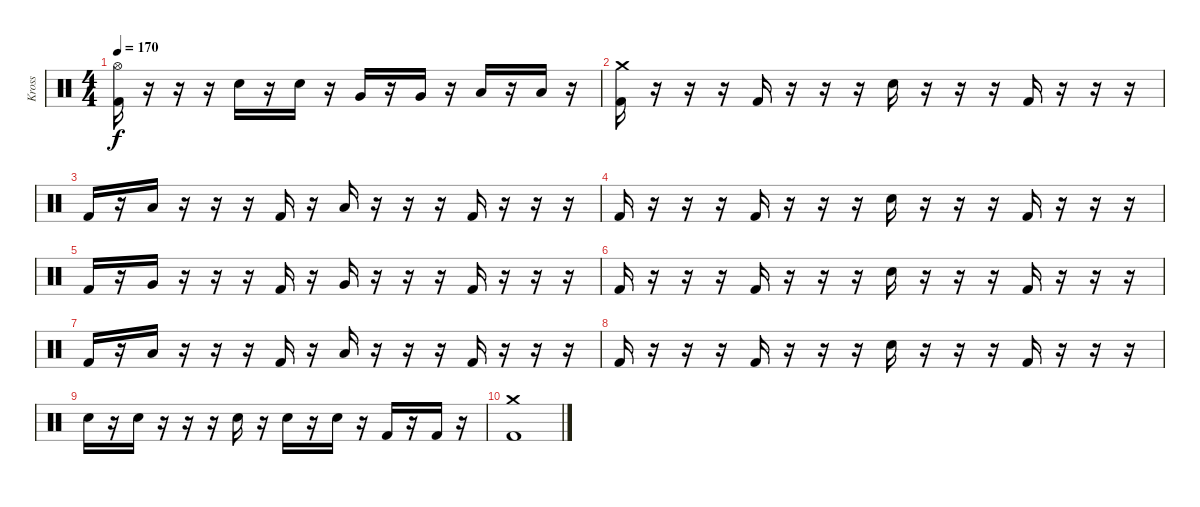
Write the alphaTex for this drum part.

\track ("Kross" "Kross") {instrument percussion}
\staff {score}
\articulation defaults
\ts (4 4)
\tempo 170
\clef neutral
\ks c
("Hi-Hat (open)" "Kick (hit) 2").16{dy f} r.16 r.16 r.16 "Electric Snare (hit)".16 r.16 "Electric Snare (hit)".16 r.16 "Very Low Tom (hit)".16 r.16 "Very Low Tom (hit)".16 r.16 "Low Floor Tom (hit)".16 r.16 "Low Floor Tom (hit)".16 r.16 |
("Crash medium (hit)" "Kick (hit) 2").16 r.16 r.16 r.16 "Kick (hit) 2".16 r.16 r.16 r.16 "Electric Snare (hit)".16 r.16 r.16 r.16 "Kick (hit) 2".16 r.16 r.16 r.16 |
"Kick (hit) 2".16 r.16 "Low Floor Tom (hit)".16 r.16 r.16 r.16 "Kick (hit) 2".16 r.16 "Low Floor Tom (hit)".16 r.16 r.16 r.16 "Kick (hit) 2".16 r.16 r.16 r.16 |
"Kick (hit) 2".16 r.16 r.16 r.16 "Kick (hit) 2".16 r.16 r.16 r.16 "Electric Snare (hit)".16 r.16 r.16 r.16 "Kick (hit) 2".16 r.16 r.16 r.16 |
"Kick (hit) 2".16 r.16 "Very Low Tom (hit)".16 r.16 r.16 r.16 "Kick (hit) 2".16 r.16 "Very Low Tom (hit)".16 r.16 r.16 r.16 "Kick (hit) 2".16 r.16 r.16 r.16 |
"Kick (hit) 2".16 r.16 r.16 r.16 "Kick (hit) 2".16 r.16 r.16 r.16 "Electric Snare (hit)".16 r.16 r.16 r.16 "Kick (hit) 2".16 r.16 r.16 r.16 |
"Kick (hit) 2".16 r.16 "Low Tom (hit)".16 r.16 r.16 r.16 "Kick (hit) 2".16 r.16 "Low Tom (hit)".16 r.16 r.16 r.16 "Kick (hit) 2".16 r.16 r.16 r.16 |
"Kick (hit) 2".16 r.16 r.16 r.16 "Kick (hit) 2".16 r.16 r.16 r.16 "Electric Snare (hit)".16 r.16 r.16 r.16 "Kick (hit) 2".16 r.16 r.16 r.16 |
"Electric Snare (hit)".16 r.16 "Electric Snare (hit)".16 r.16 r.16 r.16 "Electric Snare (hit)".16 r.16 "Electric Snare (hit)".16 r.16 "Electric Snare (hit)".16 r.16 "Kick (hit) 2".16 r.16 "Kick (hit) 2".16 r.16 |
("Crash medium (hit)" "Kick (hit) 2").1
